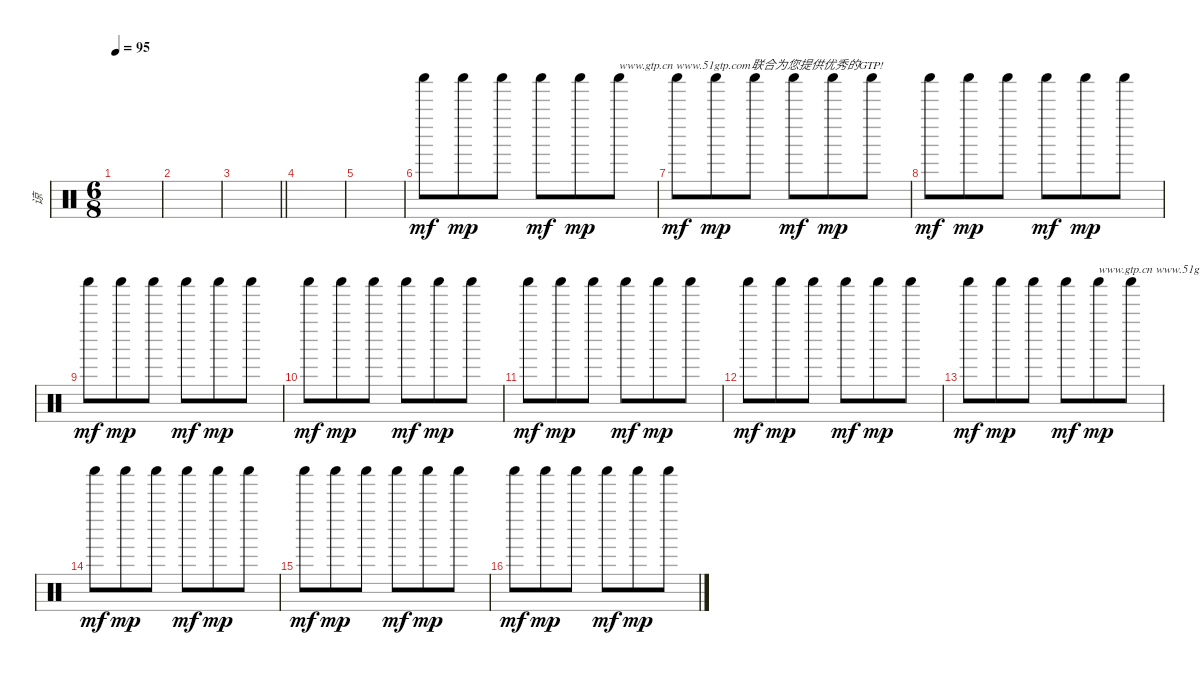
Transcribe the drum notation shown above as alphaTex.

\track ("谅" "谅") {instrument percussion}
\staff {score}
\articulation defaults
\ts (6 8)
\tempo 95
\clef neutral
\ks c
|
|
\barLineRight lightlight
|
|
|
"Shaker (hit)".8{dy mf volume 12} "Shaker (hit)".8{dy mp} "Shaker (hit)".8 "Shaker (hit)".8{dy mf} "Shaker (hit)".8{dy mp} "Shaker (hit)".8{txt "www.gtp.cn www.51gtp.com联合为您提供优秀的GTP!"} |
"Shaker (hit)".8{dy mf} "Shaker (hit)".8{dy mp} "Shaker (hit)".8 "Shaker (hit)".8{dy mf} "Shaker (hit)".8{dy mp} "Shaker (hit)".8 |
"Shaker (hit)".8{dy mf} "Shaker (hit)".8{dy mp} "Shaker (hit)".8 "Shaker (hit)".8{dy mf} "Shaker (hit)".8{dy mp} "Shaker (hit)".8 |
"Shaker (hit)".8{dy mf} "Shaker (hit)".8{dy mp} "Shaker (hit)".8 "Shaker (hit)".8{dy mf} "Shaker (hit)".8{dy mp} "Shaker (hit)".8 |
"Shaker (hit)".8{dy mf} "Shaker (hit)".8{dy mp} "Shaker (hit)".8 "Shaker (hit)".8{dy mf} "Shaker (hit)".8{dy mp} "Shaker (hit)".8 |
"Shaker (hit)".8{dy mf} "Shaker (hit)".8{dy mp} "Shaker (hit)".8 "Shaker (hit)".8{dy mf} "Shaker (hit)".8{dy mp} "Shaker (hit)".8 |
"Shaker (hit)".8{dy mf} "Shaker (hit)".8{dy mp} "Shaker (hit)".8 "Shaker (hit)".8{dy mf} "Shaker (hit)".8{dy mp} "Shaker (hit)".8 |
"Shaker (hit)".8{dy mf} "Shaker (hit)".8{dy mp} "Shaker (hit)".8 "Shaker (hit)".8{dy mf} "Shaker (hit)".8{txt "www.gtp.cn www.51gtp.com联合为您提供优秀的GTP!" dy mp} "Shaker (hit)".8 |
"Shaker (hit)".8{dy mf} "Shaker (hit)".8{dy mp} "Shaker (hit)".8 "Shaker (hit)".8{dy mf} "Shaker (hit)".8{dy mp} "Shaker (hit)".8 |
"Shaker (hit)".8{dy mf} "Shaker (hit)".8{dy mp} "Shaker (hit)".8 "Shaker (hit)".8{dy mf} "Shaker (hit)".8{dy mp} "Shaker (hit)".8 |
"Shaker (hit)".8{dy mf} "Shaker (hit)".8{dy mp} "Shaker (hit)".8 "Shaker (hit)".8{dy mf} "Shaker (hit)".8{dy mp} "Shaker (hit)".8
